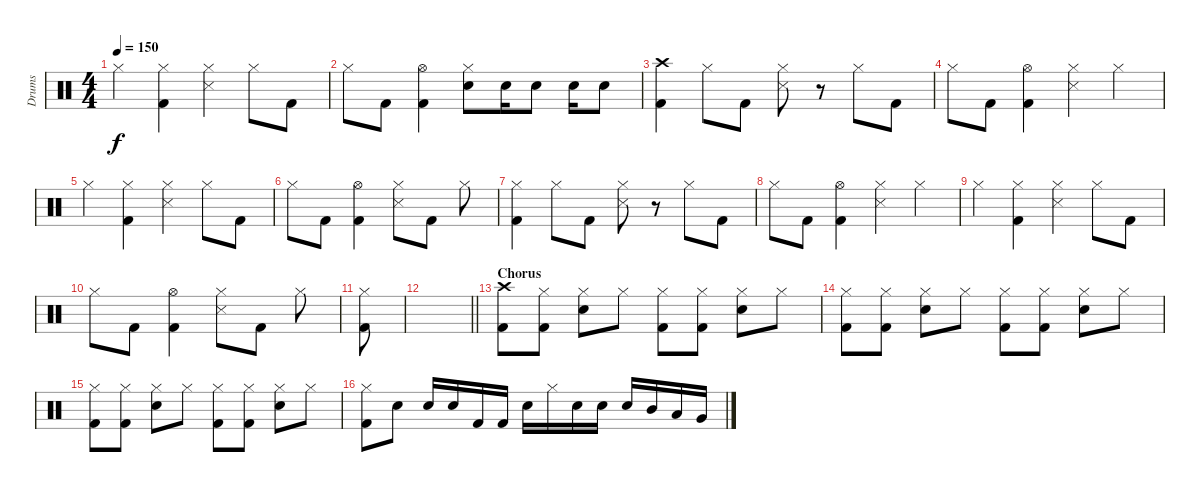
\track ("Drums" "Drums") {instrument percussion}
\staff {score}
\articulation defaults
\ts (4 4)
\tempo 150
\clef neutral
\ks c "Hi-Hat (closed)".4{dy f}
("Hi-Hat (closed)" "Kick (hit) 2").4 ("Hi-Hat (closed)" "Snare (side stick) 3").4 "Hi-Hat (closed)".8 "Kick (hit) 2".8 |
"Hi-Hat (closed)".8 "Kick (hit) 2".8 ("Hi-Hat (open)" "Kick (hit) 2").4 ("Hi-Hat (closed)" "Snare (hit) 2").8 "Snare (hit) 2".16 "Snare (hit) 2".8 "Snare (hit) 2".16 "Snare (hit) 2".8 |
("Crash high (hit)" "Kick (hit) 2").4 "Hi-Hat (closed)".8 "Kick (hit) 2".8 ("Hi-Hat (closed)" "Snare (side stick) 3").8 r.8 "Hi-Hat (closed)".8 "Kick (hit) 2".8 |
"Hi-Hat (closed)".8 "Kick (hit) 2".8 ("Hi-Hat (open)" "Kick (hit) 2").4 ("Hi-Hat (closed)" "Snare (side stick) 3").4 "Hi-Hat (closed)".4 |
"Hi-Hat (closed)".4 ("Hi-Hat (closed)" "Kick (hit) 2").4 ("Hi-Hat (closed)" "Snare (side stick) 3").4 "Hi-Hat (closed)".8 "Kick (hit) 2".8 |
"Hi-Hat (closed)".8 "Kick (hit) 2".8 ("Hi-Hat (open)" "Kick (hit) 2").4 ("Hi-Hat (closed)" "Snare (side stick) 3").8 "Kick (hit) 2".8 "Hi-Hat (closed)".8 |
("Hi-Hat (closed)" "Kick (hit) 2").4 "Hi-Hat (closed)".8 "Kick (hit) 2".8 ("Hi-Hat (closed)" "Snare (side stick) 3").8 r.8 "Hi-Hat (closed)".8 "Kick (hit) 2".8 |
"Hi-Hat (closed)".8 "Kick (hit) 2".8 ("Hi-Hat (open)" "Kick (hit) 2").4 ("Hi-Hat (closed)" "Snare (side stick) 3").4 "Hi-Hat (closed)".4 |
"Hi-Hat (closed)".4 ("Hi-Hat (closed)" "Kick (hit) 2").4 ("Hi-Hat (closed)" "Snare (side stick) 3").4 "Hi-Hat (closed)".8 "Kick (hit) 2".8 |
"Hi-Hat (closed)".8 "Kick (hit) 2".8 ("Hi-Hat (open)" "Kick (hit) 2").4 ("Hi-Hat (closed)" "Snare (side stick) 3").8 "Kick (hit) 2".8 "Hi-Hat (closed)".8 |
("Hi-Hat (closed)" "Kick (hit) 2").8 |
\barLineRight lightlight
|
\section ("" "Chorus")
("Crash high (hit)" "Kick (hit) 2").8 ("Hi-Hat (closed)" "Kick (hit) 2").8 ("Hi-Hat (closed)" "Snare (hit) 2").8 "Hi-Hat (closed)".8 ("Hi-Hat (closed)" "Kick (hit) 2").8 ("Hi-Hat (closed)" "Kick (hit) 2").8 ("Hi-Hat (closed)" "Snare (hit) 2").8 "Hi-Hat (closed)".8 |
("Hi-Hat (closed)" "Kick (hit) 2").8 ("Hi-Hat (closed)" "Kick (hit) 2").8 ("Hi-Hat (closed)" "Snare (hit) 2").8 "Hi-Hat (closed)".8 ("Hi-Hat (closed)" "Kick (hit) 2").8 ("Hi-Hat (closed)" "Kick (hit) 2").8 ("Hi-Hat (closed)" "Snare (hit) 2").8 "Hi-Hat (closed)".8 |
("Hi-Hat (closed)" "Kick (hit) 2").8 ("Hi-Hat (closed)" "Kick (hit) 2").8 ("Hi-Hat (closed)" "Snare (hit) 2").8 "Hi-Hat (closed)".8 ("Hi-Hat (closed)" "Kick (hit) 2").8 ("Hi-Hat (closed)" "Kick (hit) 2").8 ("Hi-Hat (closed)" "Snare (hit) 2").8 "Hi-Hat (closed)".8 |
("Hi-Hat (closed)" "Kick (hit) 2").8 "Snare (hit) 2".8 "Snare (hit) 2".16 "Snare (hit) 2".16 "Kick (hit) 2".16 "Kick (hit) 2".16 "Snare (hit) 2".16 "Hi-Hat (closed)".16 "Snare (hit) 2".16 "Snare (hit) 2".16 "Snare (hit) 2".16 "Mid Tom (hit)".16 "Low Tom (hit)".16 "Very Low Tom (hit)".16
